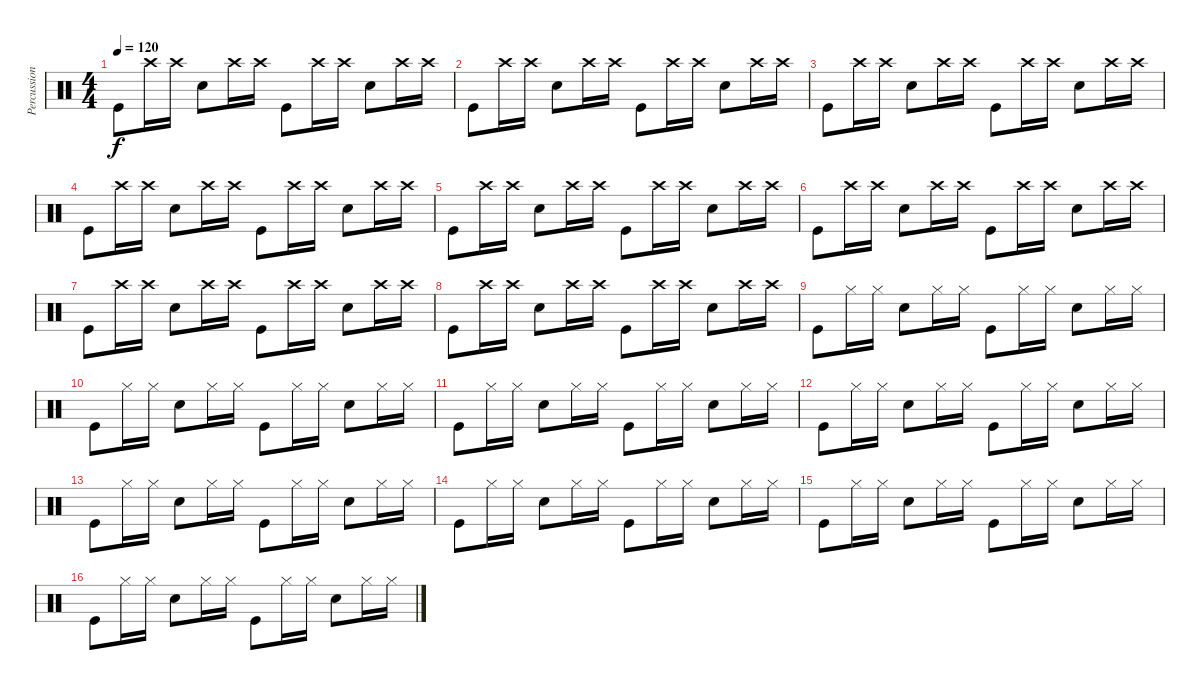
\track ("Percussion" "Percussion") {instrument percussion}
\staff {score}
\articulation defaults
\ts (4 4)
\tempo 120
\clef neutral
\ks c "Kick (hit)".8{dy f} "Crash high (hit)".16 "Crash high (hit)".16 "Snare (hit) 2".8 "Crash high (hit)".16 "Crash high (hit)".16 "Kick (hit)".8 "Crash high (hit)".16 "Crash high (hit)".16 "Snare (hit) 2".8 "Crash high (hit)".16 "Crash high (hit)".16
|
"Kick (hit)".8 "Crash high (hit)".16 "Crash high (hit)".16 "Snare (hit) 2".8 "Crash high (hit)".16 "Crash high (hit)".16 "Kick (hit)".8 "Crash high (hit)".16 "Crash high (hit)".16 "Snare (hit) 2".8 "Crash high (hit)".16 "Crash high (hit)".16 |
"Kick (hit)".8 "Crash high (hit)".16 "Crash high (hit)".16 "Snare (hit) 2".8 "Crash high (hit)".16 "Crash high (hit)".16 "Kick (hit)".8 "Crash high (hit)".16 "Crash high (hit)".16 "Snare (hit) 2".8 "Crash high (hit)".16 "Crash high (hit)".16 |
"Kick (hit)".8 "Crash high (hit)".16 "Crash high (hit)".16 "Snare (hit) 2".8 "Crash high (hit)".16 "Crash high (hit)".16 "Kick (hit)".8 "Crash high (hit)".16 "Crash high (hit)".16 "Snare (hit) 2".8 "Crash high (hit)".16 "Crash high (hit)".16 |
"Kick (hit)".8 "Crash high (hit)".16 "Crash high (hit)".16 "Snare (hit) 2".8 "Crash high (hit)".16 "Crash high (hit)".16 "Kick (hit)".8 "Crash high (hit)".16 "Crash high (hit)".16 "Snare (hit) 2".8 "Crash high (hit)".16 "Crash high (hit)".16 |
"Kick (hit)".8 "Crash high (hit)".16 "Crash high (hit)".16 "Snare (hit) 2".8 "Crash high (hit)".16 "Crash high (hit)".16 "Kick (hit)".8 "Crash high (hit)".16 "Crash high (hit)".16 "Snare (hit) 2".8 "Crash high (hit)".16 "Crash high (hit)".16 |
"Kick (hit)".8 "Crash high (hit)".16 "Crash high (hit)".16 "Snare (hit) 2".8 "Crash high (hit)".16 "Crash high (hit)".16 "Kick (hit)".8 "Crash high (hit)".16 "Crash high (hit)".16 "Snare (hit) 2".8 "Crash high (hit)".16 "Crash high (hit)".16 |
"Kick (hit)".8 "Crash high (hit)".16 "Crash high (hit)".16 "Snare (hit) 2".8 "Crash high (hit)".16 "Crash high (hit)".16 "Kick (hit)".8 "Crash high (hit)".16 "Crash high (hit)".16 "Snare (hit) 2".8 "Crash high (hit)".16 "Crash high (hit)".16 |
"Kick (hit)".8 "Hi-Hat (closed)".16 "Hi-Hat (closed)".16 "Snare (hit) 2".8 "Hi-Hat (closed)".16 "Hi-Hat (closed)".16 "Kick (hit)".8 "Hi-Hat (closed)".16 "Hi-Hat (closed)".16 "Snare (hit) 2".8 "Hi-Hat (closed)".16 "Hi-Hat (closed)".16 |
"Kick (hit)".8 "Hi-Hat (closed)".16 "Hi-Hat (closed)".16 "Snare (hit) 2".8 "Hi-Hat (closed)".16 "Hi-Hat (closed)".16 "Kick (hit)".8 "Hi-Hat (closed)".16 "Hi-Hat (closed)".16 "Snare (hit) 2".8 "Hi-Hat (closed)".16 "Hi-Hat (closed)".16 |
"Kick (hit)".8 "Hi-Hat (closed)".16 "Hi-Hat (closed)".16 "Snare (hit) 2".8 "Hi-Hat (closed)".16 "Hi-Hat (closed)".16 "Kick (hit)".8 "Hi-Hat (closed)".16 "Hi-Hat (closed)".16 "Snare (hit) 2".8 "Hi-Hat (closed)".16 "Hi-Hat (closed)".16 |
"Kick (hit)".8 "Hi-Hat (closed)".16 "Hi-Hat (closed)".16 "Snare (hit) 2".8 "Hi-Hat (closed)".16 "Hi-Hat (closed)".16 "Kick (hit)".8 "Hi-Hat (closed)".16 "Hi-Hat (closed)".16 "Snare (hit) 2".8 "Hi-Hat (closed)".16 "Hi-Hat (closed)".16 |
"Kick (hit)".8 "Hi-Hat (closed)".16 "Hi-Hat (closed)".16 "Snare (hit) 2".8 "Hi-Hat (closed)".16 "Hi-Hat (closed)".16 "Kick (hit)".8 "Hi-Hat (closed)".16 "Hi-Hat (closed)".16 "Snare (hit) 2".8 "Hi-Hat (closed)".16 "Hi-Hat (closed)".16 |
"Kick (hit)".8 "Hi-Hat (closed)".16 "Hi-Hat (closed)".16 "Snare (hit) 2".8 "Hi-Hat (closed)".16 "Hi-Hat (closed)".16 "Kick (hit)".8 "Hi-Hat (closed)".16 "Hi-Hat (closed)".16 "Snare (hit) 2".8 "Hi-Hat (closed)".16 "Hi-Hat (closed)".16 |
"Kick (hit)".8 "Hi-Hat (closed)".16 "Hi-Hat (closed)".16 "Snare (hit) 2".8 "Hi-Hat (closed)".16 "Hi-Hat (closed)".16 "Kick (hit)".8 "Hi-Hat (closed)".16 "Hi-Hat (closed)".16 "Snare (hit) 2".8 "Hi-Hat (closed)".16 "Hi-Hat (closed)".16 |
"Kick (hit)".8 "Hi-Hat (closed)".16 "Hi-Hat (closed)".16 "Snare (hit) 2".8 "Hi-Hat (closed)".16 "Hi-Hat (closed)".16 "Kick (hit)".8 "Hi-Hat (closed)".16 "Hi-Hat (closed)".16 "Snare (hit) 2".8 "Hi-Hat (closed)".16 "Hi-Hat (closed)".16
